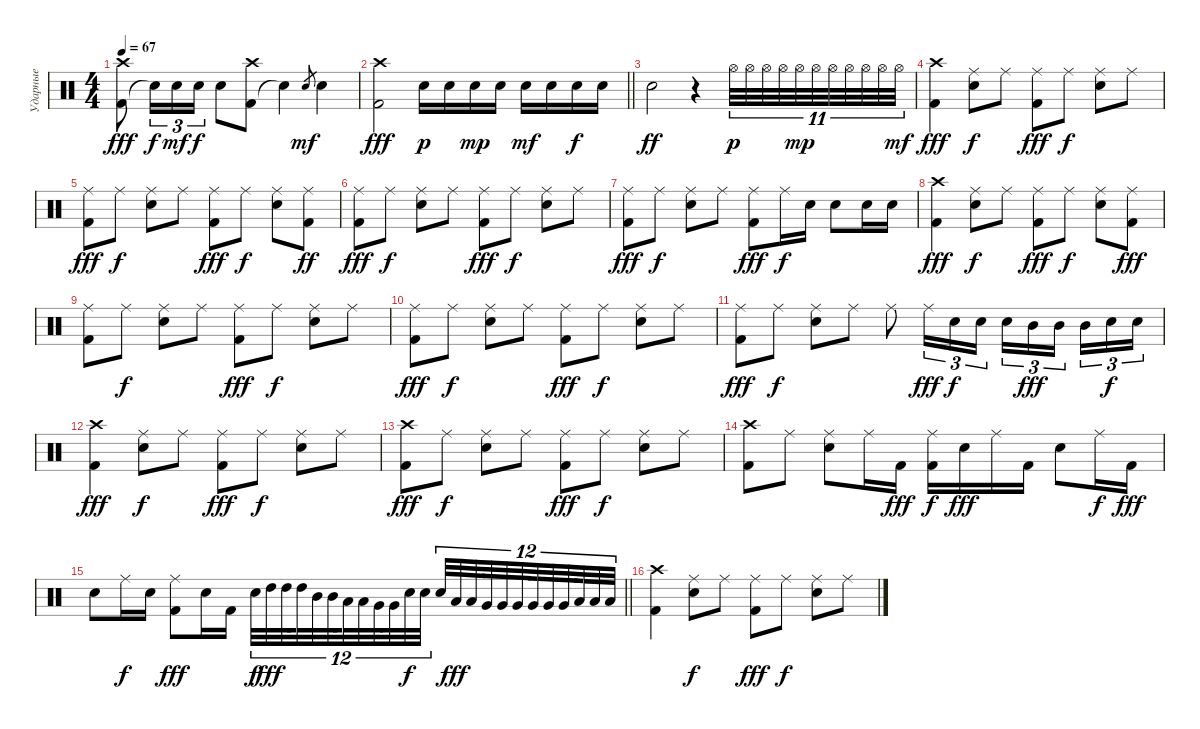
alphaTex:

\track ("Ударные" "Ударные") {instrument percussion}
\staff
\articulation defaults
\ts (4 4)
\tempo 67
\clef neutral
\ks c
("Kick (hit) 2" "Crash high (hit)").8{dy fff} "Snare (hit)"{t}.16{tu (3 2) dy f} "Electric Snare (hit)".16{tu (3 2) dy mf} "Electric Snare (hit)".16{tu (3 2) dy f} "Snare (hit) 2".8 ("Kick (hit) 2" "Crash high (hit)").8 "Snare (hit)"{t}.4 "Snare (hit) 2".8{gr dy mf} "Snare (hit) 2".4 |
\barLineRight lightlight
("Kick (hit) 2" "Crash high (hit)").2{dy fff} "Snare (hit) 2".16{dy p} "Snare (hit) 2".16 "Snare (hit) 2".16{dy mp} "Snare (hit) 2".16 "Snare (hit) 2".16{dy mf} "Snare (hit) 2".16 "Snare (hit) 2".16{dy f} "Snare (hit) 2".16 |
"Snare (hit) 2".2{dy ff} r.4 "Hi-Hat (open)".32{tu (11 8) dy p} "Hi-Hat (open)".32{tu (11 8)} "Hi-Hat (open)".32{tu (11 8)} "Hi-Hat (open)".32{tu (11 8)} "Hi-Hat (open)".32{tu (11 8) dy mp} "Hi-Hat (open)".32{tu (11 8)} "Hi-Hat (open)".32{tu (11 8)} "Hi-Hat (open)".32{tu (11 8)} "Hi-Hat (open)".32{tu (11 8)} "Hi-Hat (open)".32{tu (11 8)} "Hi-Hat (open)".32{tu (11 8) dy mf} |
("Kick (hit) 2" "Crash high (hit)").4{dy fff} ("Snare (hit) 2" "Ride (middle)").8{dy f} "Ride (middle)".8 ("Kick (hit) 2" "Ride (middle)").8{dy fff} "Ride (middle)".8{dy f} ("Snare (hit) 2" "Ride (middle)").8 "Ride (middle)".8 |
("Kick (hit) 2" "Ride (middle)").8{dy fff} "Ride (middle)".8{dy f} ("Snare (hit) 2" "Ride (middle)").8 "Ride (middle)".8 ("Kick (hit) 2" "Ride (middle)").8{dy fff} "Ride (middle)".8{dy f} ("Snare (hit) 2" "Ride (middle)").8 ("Kick (hit) 2" "Ride (middle)").8{dy ff} |
("Kick (hit) 2" "Ride (middle)").8{dy fff} "Ride (middle)".8{dy f} ("Snare (hit) 2" "Ride (middle)").8 "Ride (middle)".8 ("Kick (hit) 2" "Ride (middle)").8{dy fff} "Ride (middle)".8{dy f} ("Snare (hit) 2" "Ride (middle)").8 "Ride (middle)".8 |
("Kick (hit) 2" "Ride (middle)").8{dy fff} "Ride (middle)".8{dy f} ("Snare (hit) 2" "Ride (middle)").8 "Ride (middle)".8 ("Kick (hit) 2" "Ride (middle)").8{dy fff} "Ride (middle)".16{dy f} "Snare (hit) 2".16 "Snare (hit) 2".8 "Electric Snare (hit)".16 "Electric Snare (hit)".16 |
("Kick (hit) 2" "Crash high (hit)").4{dy fff} ("Snare (hit) 2" "Ride (middle)").8{dy f} "Ride (middle)".8 ("Kick (hit) 2" "Ride (middle)").8{dy fff} "Ride (middle)".8{dy f} ("Snare (hit) 2" "Ride (middle)").8 ("Kick (hit) 2" "Ride (middle)").8{dy fff} |
("Kick (hit) 2" "Ride (middle)").8 "Ride (middle)".8{dy f} ("Snare (hit) 2" "Ride (middle)").8 "Ride (middle)".8 ("Kick (hit) 2" "Ride (middle)").8{dy fff} "Ride (middle)".8{dy f} ("Snare (hit) 2" "Ride (middle)").8 "Ride (middle)".8 |
("Kick (hit) 2" "Ride (middle)").8{dy fff} "Ride (middle)".8{dy f} ("Snare (hit) 2" "Ride (middle)").8 "Ride (middle)".8 ("Kick (hit) 2" "Ride (middle)").8{dy fff} "Ride (middle)".8{dy f} ("Snare (hit) 2" "Ride (middle)").8 "Ride (middle)".8 |
("Kick (hit) 2" "Ride (middle)").8{dy fff} "Ride (middle)".8{dy f} ("Snare (hit) 2" "Ride (middle)").8 "Ride (middle)".8 "Ride (middle)".8 "Ride (middle)".16{tu (3 2) dy fff} "Snare (hit) 2".16{tu (3 2) dy f} "Snare (hit) 2".16{tu (3 2)} "Snare (hit) 2".16{tu (3 2)} "Mid Tom (hit)".16{tu (3 2) dy fff} "Mid Tom (hit)".16{tu (3 2) beam splitsecondary} "Mid Tom (hit)".16{tu (3 2)} "Electric Snare (hit)".16{tu (3 2) dy f} "Electric Snare (hit)".16{tu (3 2)} |
("Kick (hit) 2" "Crash high (hit)").4{dy fff} ("Snare (hit) 2" "Ride (middle)").8{dy f} "Ride (middle)".8 ("Kick (hit) 2" "Ride (middle)").8{dy fff} "Ride (middle)".8{dy f} ("Snare (hit) 2" "Ride (middle)").8 "Ride (middle)".8 |
("Kick (hit) 2" "Crash high (hit)").8{dy fff} "Ride (middle)".8{dy f} ("Snare (hit) 2" "Ride (middle)").8 "Ride (middle)".8 ("Kick (hit) 2" "Ride (middle)").8{dy fff} "Ride (middle)".8{dy f} ("Snare (hit) 2" "Ride (middle)").8 "Ride (middle)".8 |
("Kick (hit) 2" "Crash high (hit)").8 "Ride (middle)".8 ("Snare (hit) 2" "Ride (middle)").8 "Ride (middle)".16 "Kick (hit) 2".16{dy fff} ("Kick (hit) 2" "Ride (middle)").16{dy f} "Snare (hit) 2".16{dy fff} "Ride (middle)".16 "Kick (hit) 2".16 "Snare (hit) 2".8 "Ride (middle)".16{dy f} "Kick (hit) 2".16{dy fff} |
\barLineRight lightlight "Snare (hit) 2".8 "Ride (middle)".16{dy f} "Snare (hit) 2".16
("Kick (hit) 2" "Ride (middle)").8{dy fff} "Snare (hit) 2".16 "Kick (hit) 2".16 "Snare (hit) 2".32{tu (12 8) dy f} "High Tom (hit)".32{tu (12 8) dy fff} "High Tom (hit)".32{tu (12 8) beam splitsecondary} "High Tom (hit)".32{tu (12 8)} "Mid Tom (hit)".32{tu (12 8)} "Mid Tom (hit)".32{tu (12 8) beam splitsecondary} "Low Tom (hit)".32{tu (12 8)} "Low Tom (hit)".32{tu (12 8)} "Very Low Tom (hit)".32{tu (12 8) beam splitsecondary} "Very Low Tom (hit)".32{tu (12 8)} "Electric Snare (hit)".32{tu (12 8) dy f} "Electric Snare (hit)".32{tu (12 8)} "Electric Snare (hit)".32{tu (12 8)} "Low Tom (hit)".32{tu (12 8) dy fff} "Low Tom (hit)".32{tu (12 8) beam splitsecondary} "Very Low Tom (hit)".32{tu (12 8)} "Very Low Tom (hit)".32{tu (12 8)} "Very Low Tom (hit)".32{tu (12 8) beam splitsecondary} "Very Low Tom (hit)".32{tu (12 8)} "Very Low Tom (hit)".32{tu (12 8)} "Very Low Tom (hit)".32{tu (12 8) beam splitsecondary} "Low Floor Tom (hit)".32{tu (12 8)} "Low Floor Tom (hit)".32{tu (12 8)} "Low Floor Tom (hit)".32{tu (12 8)} |
("Kick (hit) 2" "Crash high (hit)").4 ("Snare (hit) 2" "Ride (middle)").8{dy f} "Ride (middle)".8 ("Kick (hit) 2" "Ride (middle)").8{dy fff} "Ride (middle)".8{dy f} ("Snare (hit) 2" "Ride (middle)").8 "Ride (middle)".8
